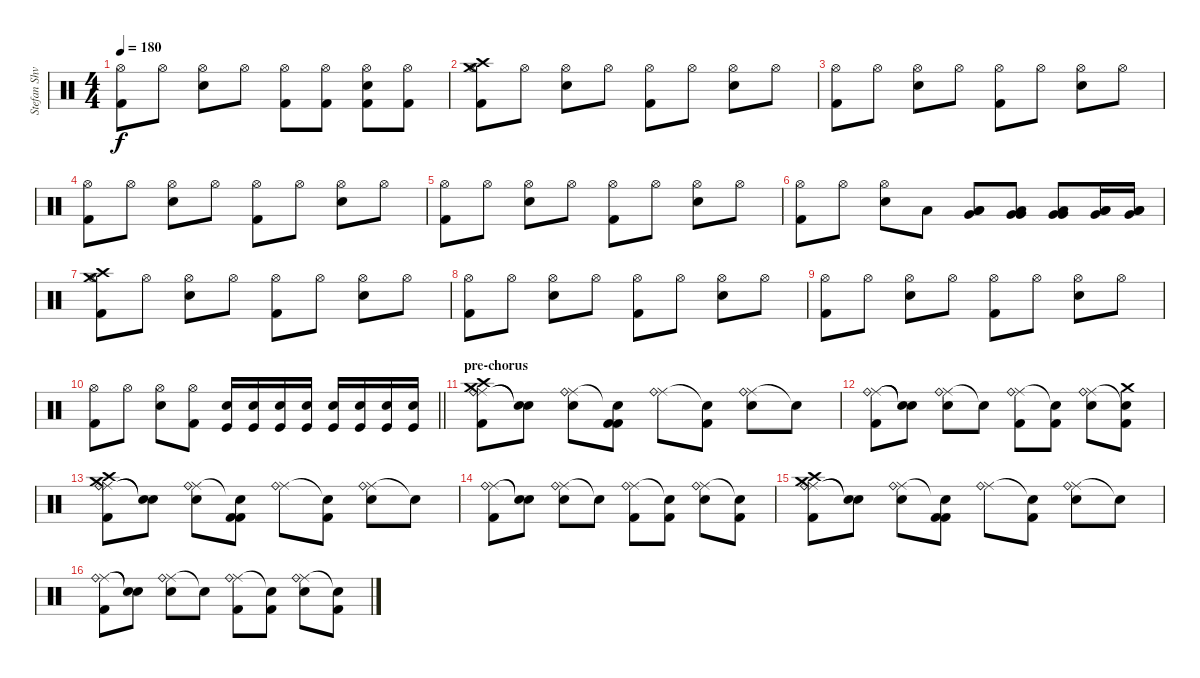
\track ("Stefan Shvartsman" "Stefan Shv") {instrument percussion}
\staff {score}
\articulation defaults
\ts (4 4)
\tempo 180
\clef neutral
\ks c
("Hi-Hat (open)" "Kick (hit) 2").8{dy f} "Hi-Hat (open)".8 ("Hi-Hat (open)" "Snare (hit) 2").8 "Hi-Hat (open)".8 ("Hi-Hat (open)" "Kick (hit) 2").8 ("Hi-Hat (open)" "Kick (hit) 2").8 ("Hi-Hat (open)" "Snare (hit) 2" "Kick (hit) 2").8 ("Hi-Hat (open)" "Kick (hit) 2").8 |
("Crash medium (hit)" "Hi-Hat (open)" "Kick (hit) 2" "Crash high (hit)").8 "Hi-Hat (open)".8 ("Hi-Hat (open)" "Snare (hit) 2").8 "Hi-Hat (open)".8 ("Hi-Hat (open)" "Kick (hit) 2").8 "Hi-Hat (open)".8 ("Hi-Hat (open)" "Snare (hit) 2").8 "Hi-Hat (open)".8 |
("Hi-Hat (open)" "Kick (hit) 2").8 "Hi-Hat (open)".8 ("Hi-Hat (open)" "Snare (hit) 2").8 "Hi-Hat (open)".8 ("Hi-Hat (open)" "Kick (hit) 2").8 "Hi-Hat (open)".8 ("Hi-Hat (open)" "Snare (hit) 2").8 "Hi-Hat (open)".8 |
("Hi-Hat (open)" "Kick (hit) 2").8 "Hi-Hat (open)".8 ("Hi-Hat (open)" "Snare (hit) 2").8 "Hi-Hat (open)".8 ("Hi-Hat (open)" "Kick (hit) 2").8 "Hi-Hat (open)".8 ("Hi-Hat (open)" "Snare (hit) 2").8 "Hi-Hat (open)".8 |
("Hi-Hat (open)" "Kick (hit) 2").8 "Hi-Hat (open)".8 ("Hi-Hat (open)" "Snare (hit) 2").8 "Hi-Hat (open)".8 ("Hi-Hat (open)" "Kick (hit) 2").8 "Hi-Hat (open)".8 ("Hi-Hat (open)" "Snare (hit) 2").8 "Hi-Hat (open)".8 |
("Hi-Hat (open)" "Kick (hit) 2").8 "Hi-Hat (open)".8 ("Hi-Hat (open)" "Snare (hit) 2").8 "Low Tom (hit)".8 ("Low Tom (hit)" "Low Tom (hit)" "Very Low Tom (hit)").8 ("Low Tom (hit)" "Very Low Tom (hit)" "Very Low Tom (hit)").8 ("Low Tom (hit)" "Very Low Tom (hit)" "Very Low Tom (hit)").8 ("Very Low Tom (hit)" "Low Floor Tom (hit)" "Low Floor Tom (hit)").16 ("Very Low Tom (hit)" "Low Floor Tom (hit)" "Low Floor Tom (hit)").16 |
("Crash medium (hit)" "Hi-Hat (open)" "Kick (hit) 2" "Crash high (hit)").8 "Hi-Hat (open)".8 ("Hi-Hat (open)" "Snare (hit) 2").8 "Hi-Hat (open)".8 ("Hi-Hat (open)" "Kick (hit) 2").8 "Hi-Hat (open)".8 ("Hi-Hat (open)" "Snare (hit) 2").8 "Hi-Hat (open)".8 |
("Hi-Hat (open)" "Kick (hit) 2").8 "Hi-Hat (open)".8 ("Hi-Hat (open)" "Snare (hit) 2").8 "Hi-Hat (open)".8 ("Hi-Hat (open)" "Kick (hit) 2").8 "Hi-Hat (open)".8 ("Hi-Hat (open)" "Snare (hit) 2").8 "Hi-Hat (open)".8 |
("Hi-Hat (open)" "Kick (hit) 2").8 "Hi-Hat (open)".8 ("Hi-Hat (open)" "Snare (hit) 2").8 "Hi-Hat (open)".8 ("Hi-Hat (open)" "Kick (hit) 2").8 "Hi-Hat (open)".8 ("Hi-Hat (open)" "Snare (hit) 2").8 "Hi-Hat (open)".8 |
\barLineRight lightlight
("Hi-Hat (open)" "Kick (hit) 2").8 "Hi-Hat (open)".8 ("Hi-Hat (open)" "Snare (hit) 2").8 ("Hi-Hat (open)" "Kick (hit) 2").8 ("Snare (hit) 2" "Kick (hit)").16 ("Snare (hit) 2" "Kick (hit)").16 ("Snare (hit) 2" "Kick (hit)").16 ("Snare (hit) 2" "Kick (hit)").16 ("Snare (hit) 2" "Kick (hit)").16 ("Snare (hit) 2" "Kick (hit)").16 ("Snare (hit) 2" "Kick (hit)").16 ("Snare (hit) 2" "Kick (hit)").16 |
\section ("" "pre-chorus")
("Ride (middle)" "Ride (bell)" "Crash medium (hit)" "Kick (hit) 2" "Crash high (hit)").8 ("Snare (hit)"{t} "Snare (hit)"{t}).8 ("Ride (middle)" "Ride (bell)" "Snare (hit) 2").8 ("Snare (hit)"{t} "Kick (hit) 2" "Kick (hit) 2").8 ("Ride (middle)" "Ride (bell)").8 ("Snare (hit)"{t} "Kick (hit) 2").8 ("Ride (middle)" "Ride (bell)" "Snare (hit) 2").8 "Snare (hit)"{t}.8 |
("Ride (middle)" "Ride (bell)" "Kick (hit) 2").8 ("Snare (hit)"{t} "Snare (hit)"{t}).8 ("Ride (middle)" "Ride (bell)" "Snare (hit) 2").8 "Snare (hit)"{t}.8 ("Ride (middle)" "Ride (bell)" "Kick (hit) 2").8 ("Snare (hit)"{t} "Kick (hit) 2").8 ("Ride (middle)" "Ride (bell)" "Snare (hit) 2").8 ("Snare (hit)"{t} "Crash medium (hit)" "Kick (hit) 2").8 |
("Ride (middle)" "Ride (bell)" "Crash medium (hit)" "Kick (hit) 2" "Crash high (hit)").8 ("Snare (hit)"{t} "Snare (hit)"{t}).8 ("Ride (middle)" "Ride (bell)" "Snare (hit) 2").8 ("Snare (hit)"{t} "Kick (hit) 2" "Kick (hit) 2").8 ("Ride (middle)" "Ride (bell)").8 ("Snare (hit)"{t} "Kick (hit) 2").8 ("Ride (middle)" "Ride (bell)" "Snare (hit) 2").8 "Snare (hit)"{t}.8 |
("Ride (middle)" "Ride (bell)" "Kick (hit) 2").8 ("Snare (hit)"{t} "Snare (hit)"{t}).8 ("Ride (middle)" "Ride (bell)" "Snare (hit) 2").8 "Snare (hit)"{t}.8 ("Ride (middle)" "Ride (bell)" "Kick (hit) 2").8 ("Snare (hit)"{t} "Kick (hit) 2").8 ("Ride (middle)" "Ride (bell)" "Snare (hit) 2").8 ("Snare (hit)"{t} "Kick (hit) 2").8 |
("Ride (middle)" "Ride (bell)" "Crash medium (hit)" "Kick (hit) 2" "Crash high (hit)").8 ("Snare (hit)"{t} "Snare (hit)"{t}).8 ("Ride (middle)" "Ride (bell)" "Snare (hit) 2").8 ("Snare (hit)"{t} "Kick (hit) 2" "Kick (hit) 2").8 ("Ride (middle)" "Ride (bell)").8 ("Snare (hit)"{t} "Kick (hit) 2").8 ("Ride (middle)" "Ride (bell)" "Snare (hit) 2").8 "Snare (hit)"{t}.8 |
("Ride (middle)" "Ride (bell)" "Kick (hit) 2").8 ("Snare (hit)"{t} "Snare (hit)"{t}).8 ("Ride (middle)" "Ride (bell)" "Snare (hit) 2").8 "Snare (hit)"{t}.8 ("Ride (middle)" "Ride (bell)" "Kick (hit) 2").8 ("Snare (hit)"{t} "Kick (hit) 2").8 ("Ride (middle)" "Ride (bell)" "Snare (hit) 2").8 ("Snare (hit)"{t} "Kick (hit) 2").8
